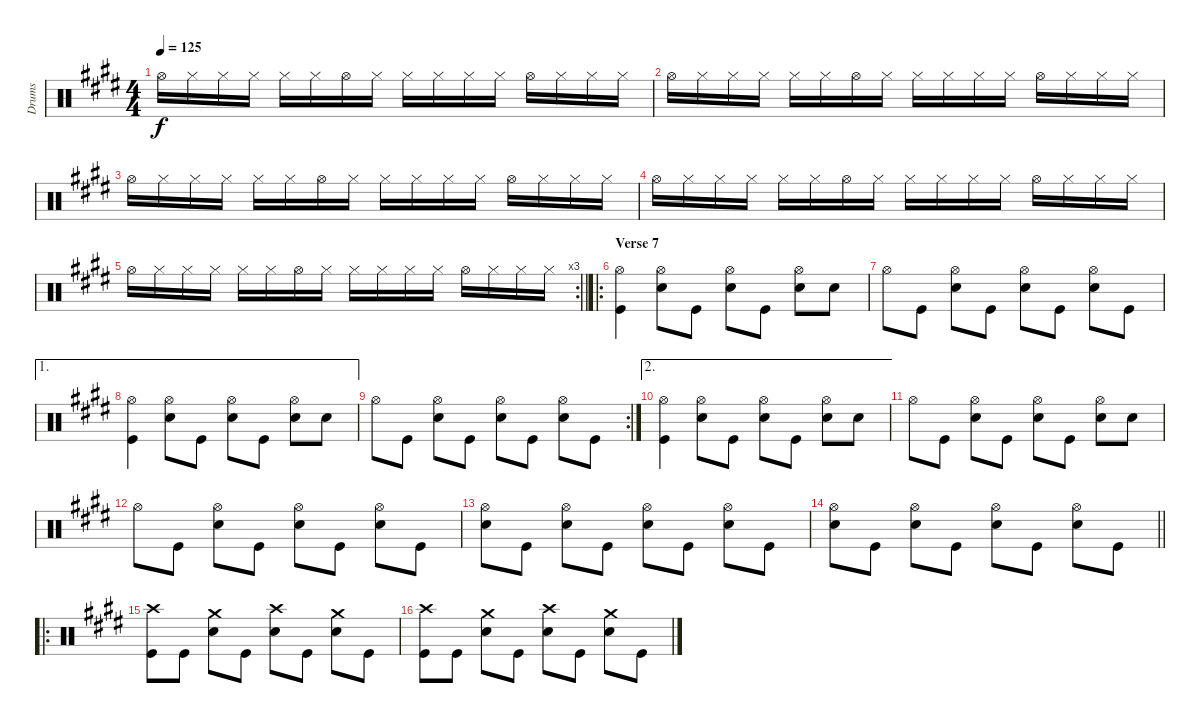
\track ("Drums" "Drums") {instrument percussion}
\staff {score}
\articulation defaults
\ts (4 4)
\tempo 125
\clef neutral
\ks e "Hi-Hat (open)".16{dy f} "Hi-Hat (closed)".16 "Hi-Hat (closed)".16 "Hi-Hat (closed)".16 "Hi-Hat (closed)".16 "Hi-Hat (closed)".16 "Hi-Hat (open)".16 "Hi-Hat (closed)".16 "Hi-Hat (closed)".16 "Hi-Hat (closed)".16 "Hi-Hat (closed)".16 "Hi-Hat (closed)".16 "Hi-Hat (open)".16 "Hi-Hat (closed)".16 "Hi-Hat (closed)".16 "Hi-Hat (closed)".16
|
"Hi-Hat (open)".16 "Hi-Hat (closed)".16 "Hi-Hat (closed)".16 "Hi-Hat (closed)".16 "Hi-Hat (closed)".16 "Hi-Hat (closed)".16 "Hi-Hat (open)".16 "Hi-Hat (closed)".16 "Hi-Hat (closed)".16 "Hi-Hat (closed)".16 "Hi-Hat (closed)".16 "Hi-Hat (closed)".16 "Hi-Hat (open)".16 "Hi-Hat (closed)".16 "Hi-Hat (closed)".16 "Hi-Hat (closed)".16 |
"Hi-Hat (open)".16 "Hi-Hat (closed)".16 "Hi-Hat (closed)".16 "Hi-Hat (closed)".16 "Hi-Hat (closed)".16 "Hi-Hat (closed)".16 "Hi-Hat (open)".16 "Hi-Hat (closed)".16 "Hi-Hat (closed)".16 "Hi-Hat (closed)".16 "Hi-Hat (closed)".16 "Hi-Hat (closed)".16 "Hi-Hat (open)".16 "Hi-Hat (closed)".16 "Hi-Hat (closed)".16 "Hi-Hat (closed)".16 |
"Hi-Hat (open)".16 "Hi-Hat (closed)".16 "Hi-Hat (closed)".16 "Hi-Hat (closed)".16 "Hi-Hat (closed)".16 "Hi-Hat (closed)".16 "Hi-Hat (open)".16 "Hi-Hat (closed)".16 "Hi-Hat (closed)".16 "Hi-Hat (closed)".16 "Hi-Hat (closed)".16 "Hi-Hat (closed)".16 "Hi-Hat (open)".16 "Hi-Hat (closed)".16 "Hi-Hat (closed)".16 "Hi-Hat (closed)".16 |
\rc 3
\barLineRight lightlight "Hi-Hat (open)".16 "Hi-Hat (closed)".16 "Hi-Hat (closed)".16 "Hi-Hat (closed)".16 "Hi-Hat (closed)".16 "Hi-Hat (closed)".16 "Hi-Hat (open)".16 "Hi-Hat (closed)".16 "Hi-Hat (closed)".16 "Hi-Hat (closed)".16 "Hi-Hat (closed)".16 "Hi-Hat (closed)".16 "Hi-Hat (open)".16 "Hi-Hat (closed)".16 "Hi-Hat (closed)".16 "Hi-Hat (closed)".16
|
\ro
\section ("" "Verse 7")
("Hi-Hat (open)" "Kick (hit)").4 ("Hi-Hat (open)" "Snare (hit) 2").8 "Kick (hit)".8 ("Hi-Hat (open)" "Snare (hit) 2").8 "Kick (hit)".8 ("Hi-Hat (open)" "Snare (hit) 2").8 "Snare (hit) 2".8 |
"Hi-Hat (open)".8 "Kick (hit)".8 ("Hi-Hat (open)" "Snare (hit) 2").8 "Kick (hit)".8 ("Hi-Hat (open)" "Snare (hit) 2").8 "Kick (hit)".8 ("Hi-Hat (open)" "Snare (hit) 2").8 "Kick (hit)".8 |
\ae 1
("Hi-Hat (open)" "Kick (hit)").4 ("Hi-Hat (open)" "Snare (hit) 2").8 "Kick (hit)".8 ("Hi-Hat (open)" "Snare (hit) 2").8 "Kick (hit)".8 ("Hi-Hat (open)" "Snare (hit) 2").8 "Snare (hit) 2".8 |
\rc 2 "Hi-Hat (open)".8 "Kick (hit)".8
("Hi-Hat (open)" "Snare (hit) 2").8 "Kick (hit)".8 ("Hi-Hat (open)" "Snare (hit) 2").8 "Kick (hit)".8 ("Hi-Hat (open)" "Snare (hit) 2").8 "Kick (hit)".8 |
\ae 2
("Hi-Hat (open)" "Kick (hit)").4 ("Hi-Hat (open)" "Snare (hit) 2").8 "Kick (hit)".8 ("Hi-Hat (open)" "Snare (hit) 2").8 "Kick (hit)".8 ("Hi-Hat (open)" "Snare (hit) 2").8 "Snare (hit) 2".8 |
"Hi-Hat (open)".8 "Kick (hit)".8 ("Hi-Hat (open)" "Snare (hit) 2").8 "Kick (hit)".8 ("Hi-Hat (open)" "Snare (hit) 2").8 "Kick (hit)".8 ("Hi-Hat (open)" "Snare (hit) 2").8 "Snare (hit) 2".8 |
"Hi-Hat (open)".8 "Kick (hit)".8 ("Hi-Hat (open)" "Snare (hit) 2").8 "Kick (hit)".8 ("Hi-Hat (open)" "Snare (hit) 2").8 "Kick (hit)".8 ("Hi-Hat (open)" "Snare (hit) 2").8 "Kick (hit)".8 |
("Hi-Hat (open)" "Snare (hit) 2").8 "Kick (hit)".8 ("Hi-Hat (open)" "Snare (hit) 2").8 "Kick (hit)".8 ("Hi-Hat (open)" "Snare (hit) 2").8 "Kick (hit)".8 ("Hi-Hat (open)" "Snare (hit) 2").8 "Kick (hit)".8 |
\barLineRight lightlight
("Hi-Hat (open)" "Snare (hit) 2").8 "Kick (hit)".8 ("Hi-Hat (open)" "Snare (hit) 2").8 "Kick (hit)".8 ("Hi-Hat (open)" "Snare (hit) 2").8 "Kick (hit)".8 ("Hi-Hat (open)" "Snare (hit) 2").8 "Kick (hit)".8 |
\ro
("Crash high (hit)" "Kick (hit)").8 "Kick (hit)".8 ("Crash medium (hit)" "Snare (hit) 2").8 "Kick (hit)".8 ("Crash high (hit)" "Snare (hit) 2").8 "Kick (hit)".8 ("Crash medium (hit)" "Snare (hit) 2").8 "Kick (hit)".8 |
("Crash high (hit)" "Kick (hit)").8 "Kick (hit)".8 ("Crash medium (hit)" "Snare (hit) 2").8 "Kick (hit)".8 ("Crash high (hit)" "Snare (hit) 2").8 "Kick (hit)".8 ("Crash medium (hit)" "Snare (hit) 2").8 "Kick (hit)".8
